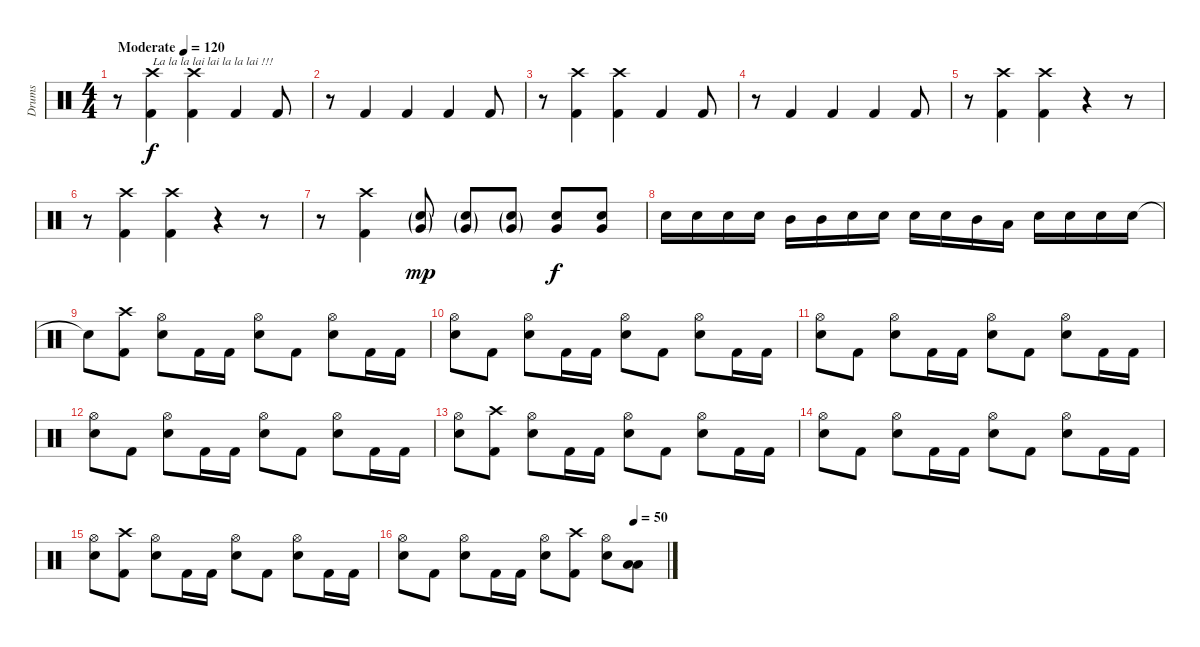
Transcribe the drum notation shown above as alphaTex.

\track ("Drums" "Drums") {instrument percussion}
\staff {score}
\articulation defaults
\ts (4 4)
\tempo (120 "Moderate")
\clef neutral
\ks c
r.8{dy f} ("Crash high (hit)" "Kick (hit) 2").4{txt "La la la lai lai la la lai !!!"} ("Crash high (hit)" "Kick (hit) 2").4 "Kick (hit) 2".4 "Kick (hit) 2".8 |
r.8 "Kick (hit) 2".4 "Kick (hit) 2".4 "Kick (hit) 2".4 "Kick (hit) 2".8 |
r.8 ("Crash high (hit)" "Kick (hit) 2").4 ("Crash high (hit)" "Kick (hit) 2").4 "Kick (hit) 2".4 "Kick (hit) 2".8 |
r.8 "Kick (hit) 2".4 "Kick (hit) 2".4 "Kick (hit) 2".4 "Kick (hit) 2".8 |
r.8 ("Crash high (hit)" "Kick (hit) 2").4 ("Crash high (hit)" "Kick (hit) 2").4 r.4 r.8 |
r.8 ("Crash high (hit)" "Kick (hit) 2").4 ("Crash high (hit)" "Kick (hit) 2").4 r.4 r.8 |
r.8 ("Crash high (hit)" "Kick (hit) 2").4 ("Snare (hit) 2"{g} "Very Low Tom (hit)"{g}).8{dy mp} ("Snare (hit) 2"{g} "Very Low Tom (hit)"{g}).8 ("Snare (hit) 2"{g} "Very Low Tom (hit)"{g}).8 ("Snare (hit) 2" "Very Low Tom (hit)").8{dy f} ("Snare (hit) 2" "Very Low Tom (hit)").8 |
"Snare (hit) 2".16 "Snare (hit) 2".16 "Snare (hit) 2".16 "Snare (hit) 2".16 "Mid Tom (hit)".16 "Mid Tom (hit)".16 "Snare (hit) 2".16 "Snare (hit) 2".16 "Snare (hit) 2".16 "Snare (hit) 2".16 "Mid Tom (hit)".16 "Low Tom (hit)".16 "Snare (hit) 2".16 "Snare (hit) 2".16 "Snare (hit) 2".16 "Snare (hit) 2".16 |
"Snare (hit)"{t}.8 ("Crash high (hit)" "Kick (hit) 2").8 ("Hi-Hat (open)" "Electric Snare (hit)").8 "Kick (hit) 2".16 "Kick (hit) 2".16 ("Hi-Hat (open)" "Electric Snare (hit)").8 "Kick (hit) 2".8 ("Hi-Hat (open)" "Electric Snare (hit)").8 "Kick (hit) 2".16 "Kick (hit) 2".16 |
("Hi-Hat (open)" "Electric Snare (hit)").8 "Kick (hit) 2".8 ("Hi-Hat (open)" "Electric Snare (hit)").8 "Kick (hit) 2".16 "Kick (hit) 2".16 ("Hi-Hat (open)" "Electric Snare (hit)").8 "Kick (hit) 2".8 ("Hi-Hat (open)" "Electric Snare (hit)").8 "Kick (hit) 2".16 "Kick (hit) 2".16 |
("Hi-Hat (open)" "Electric Snare (hit)").8 "Kick (hit) 2".8 ("Hi-Hat (open)" "Electric Snare (hit)").8 "Kick (hit) 2".16 "Kick (hit) 2".16 ("Hi-Hat (open)" "Electric Snare (hit)").8 "Kick (hit) 2".8 ("Hi-Hat (open)" "Electric Snare (hit)").8 "Kick (hit) 2".16 "Kick (hit) 2".16 |
("Hi-Hat (open)" "Electric Snare (hit)").8 "Kick (hit) 2".8 ("Hi-Hat (open)" "Electric Snare (hit)").8 "Kick (hit) 2".16 "Kick (hit) 2".16 ("Hi-Hat (open)" "Electric Snare (hit)").8 "Kick (hit) 2".8 ("Hi-Hat (open)" "Electric Snare (hit)").8 "Kick (hit) 2".16 "Kick (hit) 2".16 |
("Hi-Hat (open)" "Electric Snare (hit)").8 ("Crash high (hit)" "Kick (hit) 2").8 ("Hi-Hat (open)" "Electric Snare (hit)").8 "Kick (hit) 2".16 "Kick (hit) 2".16 ("Hi-Hat (open)" "Electric Snare (hit)").8 "Kick (hit) 2".8 ("Hi-Hat (open)" "Electric Snare (hit)").8 "Kick (hit) 2".16 "Kick (hit) 2".16 |
("Hi-Hat (open)" "Electric Snare (hit)").8 "Kick (hit) 2".8 ("Hi-Hat (open)" "Electric Snare (hit)").8 "Kick (hit) 2".16 "Kick (hit) 2".16 ("Hi-Hat (open)" "Electric Snare (hit)").8 "Kick (hit) 2".8 ("Hi-Hat (open)" "Electric Snare (hit)").8 "Kick (hit) 2".16 "Kick (hit) 2".16 |
("Hi-Hat (open)" "Electric Snare (hit)").8 ("Crash high (hit)" "Kick (hit) 2").8 ("Hi-Hat (open)" "Electric Snare (hit)").8 "Kick (hit) 2".16 "Kick (hit) 2".16 ("Hi-Hat (open)" "Electric Snare (hit)").8 "Kick (hit) 2".8 ("Hi-Hat (open)" "Electric Snare (hit)").8 "Kick (hit) 2".16 "Kick (hit) 2".16 |
\tempo (50 0.875)
("Hi-Hat (open)" "Electric Snare (hit)").8 "Kick (hit) 2".8 ("Hi-Hat (open)" "Electric Snare (hit)").8 "Kick (hit) 2".16 "Kick (hit) 2".16 ("Hi-Hat (open)" "Electric Snare (hit)").8 ("Crash high (hit)" "Kick (hit) 2").8 ("Hi-Hat (open)" "Electric Snare (hit)").8 ("Low Floor Tom (hit)" "Low Tom (hit)").8
